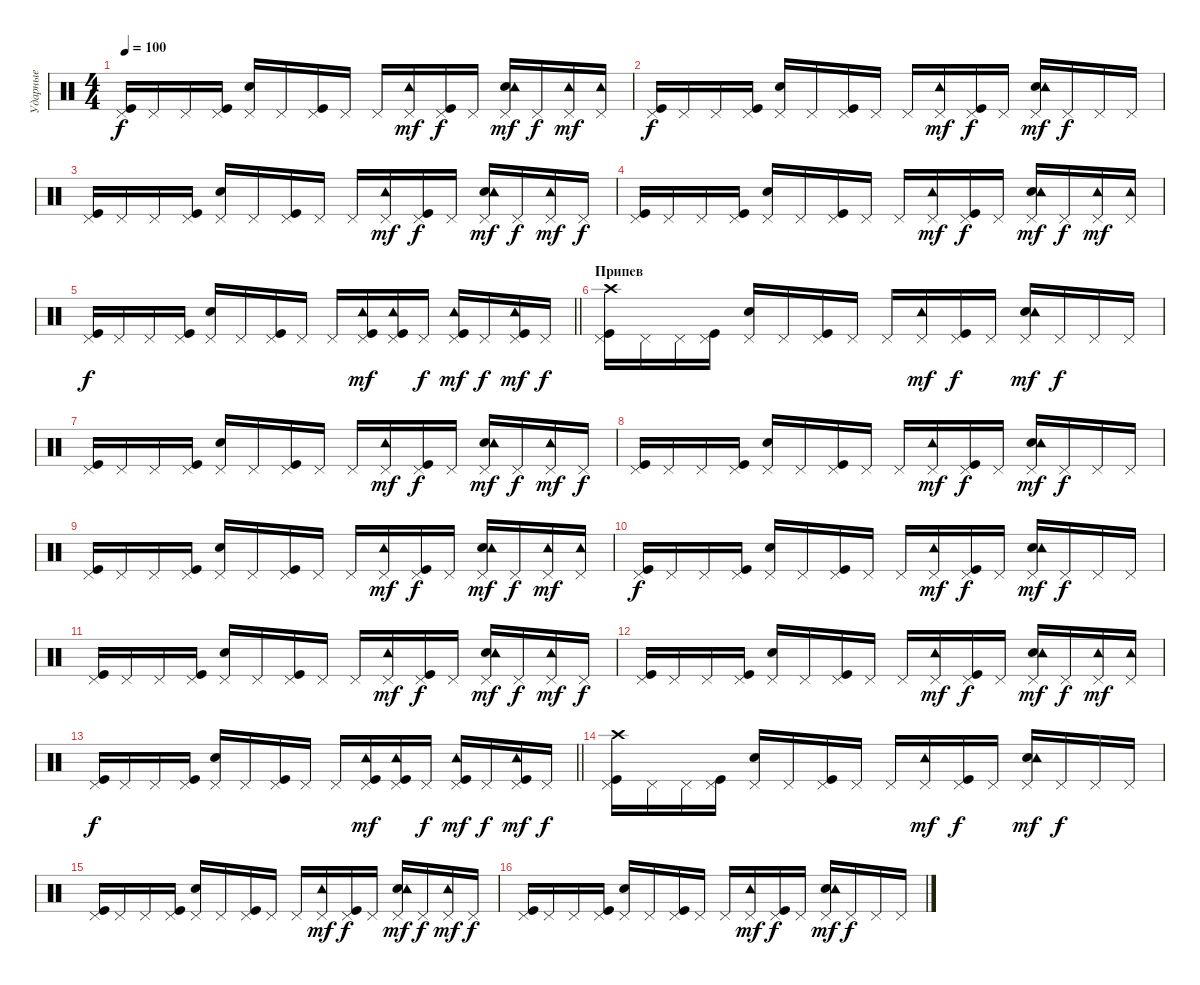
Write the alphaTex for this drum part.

\track ("Ударные" "Ударные") {instrument percussion}
\staff {score}
\articulation defaults
\ts (4 4)
\tempo 100
\clef neutral
\ks c
("Kick (hit)" "Pedal Hi-Hat (hit)").16{dy f} "Pedal Hi-Hat (hit)".16 "Pedal Hi-Hat (hit)".16 ("Kick (hit)" "Pedal Hi-Hat (hit)").16 ("Pedal Hi-Hat (hit)" "Electric Snare (hit)").16 "Pedal Hi-Hat (hit)".16 ("Kick (hit)" "Pedal Hi-Hat (hit)").16 "Pedal Hi-Hat (hit)".16 "Pedal Hi-Hat (hit)".16 ("Pedal Hi-Hat (hit)" "Tambourine (hit)").16{dy mf} ("Kick (hit)" "Pedal Hi-Hat (hit)").16{dy f} "Pedal Hi-Hat (hit)".16 ("Pedal Hi-Hat (hit)" "Electric Snare (hit)" "Tambourine (hit)").16{dy mf} "Pedal Hi-Hat (hit)".16{dy f} ("Pedal Hi-Hat (hit)" "Tambourine (hit)").16{dy mf} ("Pedal Hi-Hat (hit)" "Tambourine (hit)").16 |
("Kick (hit)" "Pedal Hi-Hat (hit)").16{dy f} "Pedal Hi-Hat (hit)".16 "Pedal Hi-Hat (hit)".16 ("Kick (hit)" "Pedal Hi-Hat (hit)").16 ("Pedal Hi-Hat (hit)" "Electric Snare (hit)").16 "Pedal Hi-Hat (hit)".16 ("Kick (hit)" "Pedal Hi-Hat (hit)").16 "Pedal Hi-Hat (hit)".16 "Pedal Hi-Hat (hit)".16 ("Pedal Hi-Hat (hit)" "Tambourine (hit)").16{dy mf} ("Kick (hit)" "Pedal Hi-Hat (hit)").16{dy f} "Pedal Hi-Hat (hit)".16 ("Pedal Hi-Hat (hit)" "Electric Snare (hit)" "Tambourine (hit)").16{dy mf} "Pedal Hi-Hat (hit)".16{dy f} "Pedal Hi-Hat (hit)".16 "Pedal Hi-Hat (hit)".16 |
("Kick (hit)" "Pedal Hi-Hat (hit)").16 "Pedal Hi-Hat (hit)".16 "Pedal Hi-Hat (hit)".16 ("Kick (hit)" "Pedal Hi-Hat (hit)").16 ("Pedal Hi-Hat (hit)" "Electric Snare (hit)").16 "Pedal Hi-Hat (hit)".16 ("Kick (hit)" "Pedal Hi-Hat (hit)").16 "Pedal Hi-Hat (hit)".16 "Pedal Hi-Hat (hit)".16 ("Pedal Hi-Hat (hit)" "Tambourine (hit)").16{dy mf} ("Kick (hit)" "Pedal Hi-Hat (hit)").16{dy f} "Pedal Hi-Hat (hit)".16 ("Pedal Hi-Hat (hit)" "Electric Snare (hit)" "Tambourine (hit)").16{dy mf} "Pedal Hi-Hat (hit)".16{dy f} ("Pedal Hi-Hat (hit)" "Tambourine (hit)").16{dy mf} "Pedal Hi-Hat (hit)".16{dy f} |
("Kick (hit)" "Pedal Hi-Hat (hit)").16 "Pedal Hi-Hat (hit)".16 "Pedal Hi-Hat (hit)".16 ("Kick (hit)" "Pedal Hi-Hat (hit)").16 ("Pedal Hi-Hat (hit)" "Electric Snare (hit)").16 "Pedal Hi-Hat (hit)".16 ("Kick (hit)" "Pedal Hi-Hat (hit)").16 "Pedal Hi-Hat (hit)".16 "Pedal Hi-Hat (hit)".16 ("Pedal Hi-Hat (hit)" "Tambourine (hit)").16{dy mf} ("Kick (hit)" "Pedal Hi-Hat (hit)").16{dy f} "Pedal Hi-Hat (hit)".16 ("Pedal Hi-Hat (hit)" "Electric Snare (hit)" "Tambourine (hit)").16{dy mf} "Pedal Hi-Hat (hit)".16{dy f} ("Pedal Hi-Hat (hit)" "Tambourine (hit)").16{dy mf} ("Pedal Hi-Hat (hit)" "Tambourine (hit)").16 |
\barLineRight lightlight
("Kick (hit)" "Pedal Hi-Hat (hit)").16{dy f} "Pedal Hi-Hat (hit)".16 "Pedal Hi-Hat (hit)".16 ("Kick (hit)" "Pedal Hi-Hat (hit)").16 ("Pedal Hi-Hat (hit)" "Electric Snare (hit)").16 "Pedal Hi-Hat (hit)".16 ("Kick (hit)" "Pedal Hi-Hat (hit)").16 "Pedal Hi-Hat (hit)".16 "Pedal Hi-Hat (hit)".16 ("Kick (hit)" "Pedal Hi-Hat (hit)" "Tambourine (hit)").16{dy mf} ("Kick (hit)" "Pedal Hi-Hat (hit)" "Tambourine (hit)").16 "Pedal Hi-Hat (hit)".16{dy f} ("Kick (hit)" "Pedal Hi-Hat (hit)" "Tambourine (hit)").16{dy mf} "Pedal Hi-Hat (hit)".16{dy f} ("Kick (hit)" "Pedal Hi-Hat (hit)" "Tambourine (hit)").16{dy mf} "Pedal Hi-Hat (hit)".16{dy f} |
\section ("" "Припев")
("Kick (hit)" "Pedal Hi-Hat (hit)" "Crash high (hit)").16 "Pedal Hi-Hat (hit)".16 "Pedal Hi-Hat (hit)".16 ("Kick (hit)" "Pedal Hi-Hat (hit)").16 ("Pedal Hi-Hat (hit)" "Electric Snare (hit)").16 "Pedal Hi-Hat (hit)".16 ("Kick (hit)" "Pedal Hi-Hat (hit)").16 "Pedal Hi-Hat (hit)".16 "Pedal Hi-Hat (hit)".16 ("Pedal Hi-Hat (hit)" "Tambourine (hit)").16{dy mf} ("Kick (hit)" "Pedal Hi-Hat (hit)").16{dy f} "Pedal Hi-Hat (hit)".16 ("Pedal Hi-Hat (hit)" "Electric Snare (hit)" "Tambourine (hit)").16{dy mf} "Pedal Hi-Hat (hit)".16{dy f} "Pedal Hi-Hat (hit)".16 "Pedal Hi-Hat (hit)".16 |
("Kick (hit)" "Pedal Hi-Hat (hit)").16 "Pedal Hi-Hat (hit)".16 "Pedal Hi-Hat (hit)".16 ("Kick (hit)" "Pedal Hi-Hat (hit)").16 ("Pedal Hi-Hat (hit)" "Electric Snare (hit)").16 "Pedal Hi-Hat (hit)".16 ("Kick (hit)" "Pedal Hi-Hat (hit)").16 "Pedal Hi-Hat (hit)".16 "Pedal Hi-Hat (hit)".16 ("Pedal Hi-Hat (hit)" "Tambourine (hit)").16{dy mf} ("Kick (hit)" "Pedal Hi-Hat (hit)").16{dy f} "Pedal Hi-Hat (hit)".16 ("Pedal Hi-Hat (hit)" "Electric Snare (hit)" "Tambourine (hit)").16{dy mf} "Pedal Hi-Hat (hit)".16{dy f} ("Pedal Hi-Hat (hit)" "Tambourine (hit)").16{dy mf} "Pedal Hi-Hat (hit)".16{dy f} |
("Kick (hit)" "Pedal Hi-Hat (hit)").16 "Pedal Hi-Hat (hit)".16 "Pedal Hi-Hat (hit)".16 ("Kick (hit)" "Pedal Hi-Hat (hit)").16 ("Pedal Hi-Hat (hit)" "Electric Snare (hit)").16 "Pedal Hi-Hat (hit)".16 ("Kick (hit)" "Pedal Hi-Hat (hit)").16 "Pedal Hi-Hat (hit)".16 "Pedal Hi-Hat (hit)".16 ("Pedal Hi-Hat (hit)" "Tambourine (hit)").16{dy mf} ("Kick (hit)" "Pedal Hi-Hat (hit)").16{dy f} "Pedal Hi-Hat (hit)".16 ("Pedal Hi-Hat (hit)" "Electric Snare (hit)" "Tambourine (hit)").16{dy mf} "Pedal Hi-Hat (hit)".16{dy f} "Pedal Hi-Hat (hit)".16 "Pedal Hi-Hat (hit)".16 |
("Kick (hit)" "Pedal Hi-Hat (hit)").16 "Pedal Hi-Hat (hit)".16 "Pedal Hi-Hat (hit)".16 ("Kick (hit)" "Pedal Hi-Hat (hit)").16 ("Pedal Hi-Hat (hit)" "Electric Snare (hit)").16 "Pedal Hi-Hat (hit)".16 ("Kick (hit)" "Pedal Hi-Hat (hit)").16 "Pedal Hi-Hat (hit)".16 "Pedal Hi-Hat (hit)".16 ("Pedal Hi-Hat (hit)" "Tambourine (hit)").16{dy mf} ("Kick (hit)" "Pedal Hi-Hat (hit)").16{dy f} "Pedal Hi-Hat (hit)".16 ("Pedal Hi-Hat (hit)" "Electric Snare (hit)" "Tambourine (hit)").16{dy mf} "Pedal Hi-Hat (hit)".16{dy f} ("Pedal Hi-Hat (hit)" "Tambourine (hit)").16{dy mf} ("Pedal Hi-Hat (hit)" "Tambourine (hit)").16 |
("Kick (hit)" "Pedal Hi-Hat (hit)").16{dy f} "Pedal Hi-Hat (hit)".16 "Pedal Hi-Hat (hit)".16 ("Kick (hit)" "Pedal Hi-Hat (hit)").16 ("Pedal Hi-Hat (hit)" "Electric Snare (hit)").16 "Pedal Hi-Hat (hit)".16 ("Kick (hit)" "Pedal Hi-Hat (hit)").16 "Pedal Hi-Hat (hit)".16 "Pedal Hi-Hat (hit)".16 ("Pedal Hi-Hat (hit)" "Tambourine (hit)").16{dy mf} ("Kick (hit)" "Pedal Hi-Hat (hit)").16{dy f} "Pedal Hi-Hat (hit)".16 ("Pedal Hi-Hat (hit)" "Electric Snare (hit)" "Tambourine (hit)").16{dy mf} "Pedal Hi-Hat (hit)".16{dy f} "Pedal Hi-Hat (hit)".16 "Pedal Hi-Hat (hit)".16 |
("Kick (hit)" "Pedal Hi-Hat (hit)").16 "Pedal Hi-Hat (hit)".16 "Pedal Hi-Hat (hit)".16 ("Kick (hit)" "Pedal Hi-Hat (hit)").16 ("Pedal Hi-Hat (hit)" "Electric Snare (hit)").16 "Pedal Hi-Hat (hit)".16 ("Kick (hit)" "Pedal Hi-Hat (hit)").16 "Pedal Hi-Hat (hit)".16 "Pedal Hi-Hat (hit)".16 ("Pedal Hi-Hat (hit)" "Tambourine (hit)").16{dy mf} ("Kick (hit)" "Pedal Hi-Hat (hit)").16{dy f} "Pedal Hi-Hat (hit)".16 ("Pedal Hi-Hat (hit)" "Electric Snare (hit)" "Tambourine (hit)").16{dy mf} "Pedal Hi-Hat (hit)".16{dy f} ("Pedal Hi-Hat (hit)" "Tambourine (hit)").16{dy mf} "Pedal Hi-Hat (hit)".16{dy f} |
("Kick (hit)" "Pedal Hi-Hat (hit)").16 "Pedal Hi-Hat (hit)".16 "Pedal Hi-Hat (hit)".16 ("Kick (hit)" "Pedal Hi-Hat (hit)").16 ("Pedal Hi-Hat (hit)" "Electric Snare (hit)").16 "Pedal Hi-Hat (hit)".16 ("Kick (hit)" "Pedal Hi-Hat (hit)").16 "Pedal Hi-Hat (hit)".16 "Pedal Hi-Hat (hit)".16 ("Pedal Hi-Hat (hit)" "Tambourine (hit)").16{dy mf} ("Kick (hit)" "Pedal Hi-Hat (hit)").16{dy f} "Pedal Hi-Hat (hit)".16 ("Pedal Hi-Hat (hit)" "Electric Snare (hit)" "Tambourine (hit)").16{dy mf} "Pedal Hi-Hat (hit)".16{dy f} ("Pedal Hi-Hat (hit)" "Tambourine (hit)").16{dy mf} ("Pedal Hi-Hat (hit)" "Tambourine (hit)").16 |
\barLineRight lightlight
("Kick (hit)" "Pedal Hi-Hat (hit)").16{dy f} "Pedal Hi-Hat (hit)".16 "Pedal Hi-Hat (hit)".16 ("Kick (hit)" "Pedal Hi-Hat (hit)").16 ("Pedal Hi-Hat (hit)" "Electric Snare (hit)").16 "Pedal Hi-Hat (hit)".16 ("Kick (hit)" "Pedal Hi-Hat (hit)").16 "Pedal Hi-Hat (hit)".16 "Pedal Hi-Hat (hit)".16 ("Kick (hit)" "Pedal Hi-Hat (hit)" "Tambourine (hit)").16{dy mf} ("Kick (hit)" "Pedal Hi-Hat (hit)" "Tambourine (hit)").16 "Pedal Hi-Hat (hit)".16{dy f} ("Kick (hit)" "Pedal Hi-Hat (hit)" "Tambourine (hit)").16{dy mf} "Pedal Hi-Hat (hit)".16{dy f} ("Kick (hit)" "Pedal Hi-Hat (hit)" "Tambourine (hit)").16{dy mf} "Pedal Hi-Hat (hit)".16{dy f} |
("Kick (hit)" "Pedal Hi-Hat (hit)" "Crash high (hit)").16 "Pedal Hi-Hat (hit)".16 "Pedal Hi-Hat (hit)".16 ("Kick (hit)" "Pedal Hi-Hat (hit)").16 ("Pedal Hi-Hat (hit)" "Electric Snare (hit)").16 "Pedal Hi-Hat (hit)".16 ("Kick (hit)" "Pedal Hi-Hat (hit)").16 "Pedal Hi-Hat (hit)".16 "Pedal Hi-Hat (hit)".16 ("Pedal Hi-Hat (hit)" "Tambourine (hit)").16{dy mf} ("Kick (hit)" "Pedal Hi-Hat (hit)").16{dy f} "Pedal Hi-Hat (hit)".16 ("Pedal Hi-Hat (hit)" "Electric Snare (hit)" "Tambourine (hit)").16{dy mf} "Pedal Hi-Hat (hit)".16{dy f} "Pedal Hi-Hat (hit)".16 "Pedal Hi-Hat (hit)".16 |
("Kick (hit)" "Pedal Hi-Hat (hit)").16 "Pedal Hi-Hat (hit)".16 "Pedal Hi-Hat (hit)".16 ("Kick (hit)" "Pedal Hi-Hat (hit)").16 ("Pedal Hi-Hat (hit)" "Electric Snare (hit)").16 "Pedal Hi-Hat (hit)".16 ("Kick (hit)" "Pedal Hi-Hat (hit)").16 "Pedal Hi-Hat (hit)".16 "Pedal Hi-Hat (hit)".16 ("Pedal Hi-Hat (hit)" "Tambourine (hit)").16{dy mf} ("Kick (hit)" "Pedal Hi-Hat (hit)").16{dy f} "Pedal Hi-Hat (hit)".16 ("Pedal Hi-Hat (hit)" "Electric Snare (hit)" "Tambourine (hit)").16{dy mf} "Pedal Hi-Hat (hit)".16{dy f} ("Pedal Hi-Hat (hit)" "Tambourine (hit)").16{dy mf} "Pedal Hi-Hat (hit)".16{dy f} |
("Kick (hit)" "Pedal Hi-Hat (hit)").16 "Pedal Hi-Hat (hit)".16 "Pedal Hi-Hat (hit)".16 ("Kick (hit)" "Pedal Hi-Hat (hit)").16 ("Pedal Hi-Hat (hit)" "Electric Snare (hit)").16 "Pedal Hi-Hat (hit)".16 ("Kick (hit)" "Pedal Hi-Hat (hit)").16 "Pedal Hi-Hat (hit)".16 "Pedal Hi-Hat (hit)".16 ("Pedal Hi-Hat (hit)" "Tambourine (hit)").16{dy mf} ("Kick (hit)" "Pedal Hi-Hat (hit)").16{dy f} "Pedal Hi-Hat (hit)".16 ("Pedal Hi-Hat (hit)" "Electric Snare (hit)" "Tambourine (hit)").16{dy mf} "Pedal Hi-Hat (hit)".16{dy f} "Pedal Hi-Hat (hit)".16 "Pedal Hi-Hat (hit)".16
